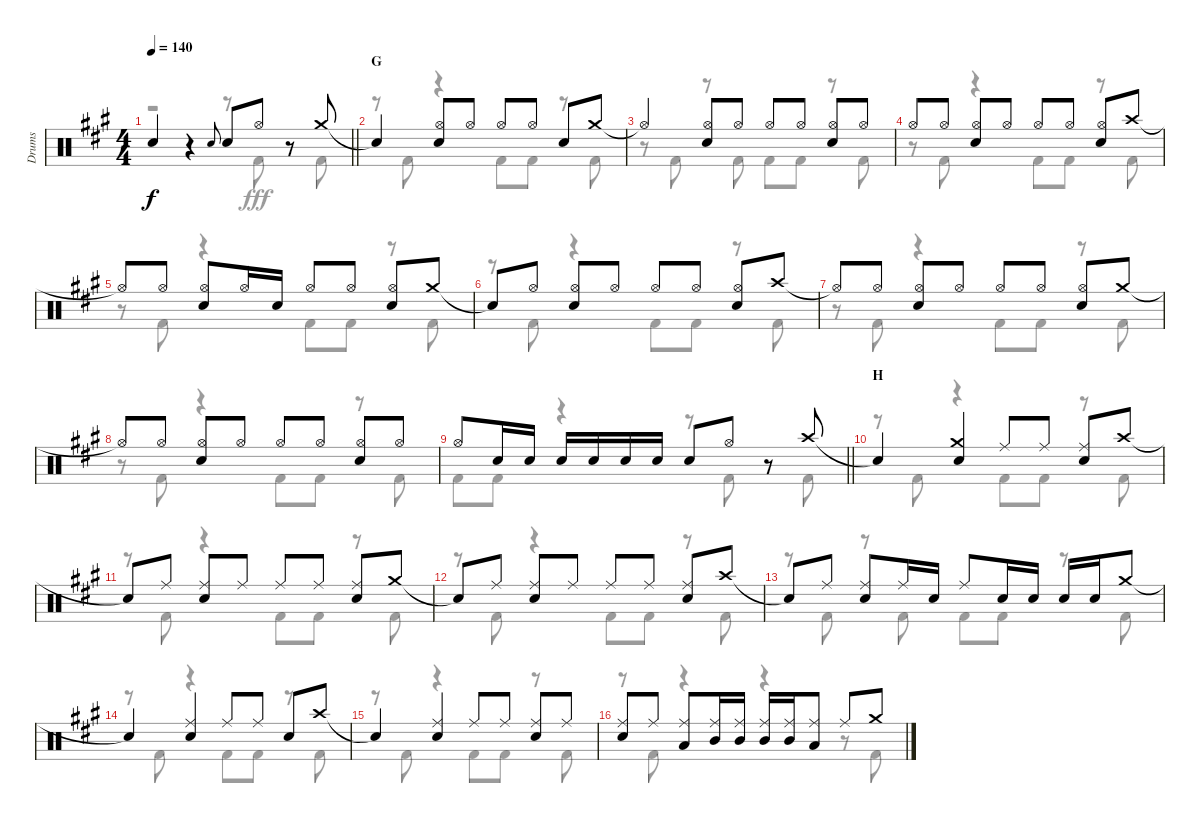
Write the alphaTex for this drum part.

\track ("Drums" "Drums") {instrument percussion}
\staff {score}
\articulation defaults
\voice
\ts (4 4)
\tempo 140
\clef neutral
\barLineRight lightlight
\ks a "Snare (hit) 2".4{dy f}
r.4 "Snare (hit) 2".8{gr onbeat} "Snare (hit) 2".8 "Hi-Hat (open)".8 r.8 "Crash medium (hit)".8 |
\section ("" "G")
"Snare (hit)"{t}.4 ("Hi-Hat (open)" "Snare (hit) 2").8 "Hi-Hat (open)".8 "Hi-Hat (open)".8 "Hi-Hat (open)".8 "Snare (hit) 2".8 "Crash medium (hit)".8 |
"Hi-Hat (open)"{t}.4 ("Hi-Hat (open)" "Snare (hit) 2").8 "Hi-Hat (open)".8 "Hi-Hat (open)".8 "Hi-Hat (open)".8 ("Hi-Hat (open)" "Snare (hit) 2").8 "Hi-Hat (open)".8 |
"Hi-Hat (open)".8 "Hi-Hat (open)".8 ("Hi-Hat (open)" "Snare (hit) 2").8 "Hi-Hat (open)".8 "Hi-Hat (open)".8 "Hi-Hat (open)".8 ("Hi-Hat (open)" "Snare (hit) 2").8 "Crash high (hit)".8 |
"Hi-Hat (open)"{t}.8 "Hi-Hat (open)".8 ("Hi-Hat (open)" "Snare (hit) 2").8 "Hi-Hat (open)".16 "Snare (hit) 2".16 "Hi-Hat (open)".8 "Hi-Hat (open)".8 ("Hi-Hat (open)" "Snare (hit) 2").8 "Crash medium (hit)".8 |
"Snare (hit)"{t}.8 "Hi-Hat (open)".8 ("Hi-Hat (open)" "Snare (hit) 2").8 "Hi-Hat (open)".8 "Hi-Hat (open)".8 "Hi-Hat (open)".8 ("Hi-Hat (open)" "Snare (hit) 2").8 "Crash high (hit)".8 |
"Hi-Hat (open)"{t}.8 "Hi-Hat (open)".8 ("Hi-Hat (open)" "Snare (hit) 2").8 "Hi-Hat (open)".8 "Hi-Hat (open)".8 "Hi-Hat (open)".8 ("Hi-Hat (open)" "Snare (hit) 2").8 "Crash medium (hit)".8 |
"Hi-Hat (open)"{t}.8 "Hi-Hat (open)".8 ("Hi-Hat (open)" "Snare (hit) 2").8 "Hi-Hat (open)".8 "Hi-Hat (open)".8 "Hi-Hat (open)".8 ("Hi-Hat (open)" "Snare (hit) 2").8 "Hi-Hat (open)".8 |
\barLineRight lightlight "Hi-Hat (open)".8 "Snare (hit) 2".16 "Snare (hit) 2".16 "Snare (hit) 2".16 "Snare (hit) 2".16 "Snare (hit) 2".16 "Snare (hit) 2".16 "Snare (hit) 2".8 "Hi-Hat (open)".8
r.8 "Crash high (hit)".8 |
\section ("" "H")
"Snare (hit)"{t}.4 ("Crash medium (hit)" "Snare (hit) 2").4 "Ride (middle)".8 "Ride (middle)".8 ("Ride (middle)" "Snare (hit) 2").8 "Crash high (hit)".8 |
"Snare (hit)"{t}.8 "Ride (middle)".8 ("Ride (middle)" "Snare (hit) 2").8 "Ride (middle)".8 "Ride (middle)".8 "Ride (middle)".8 ("Ride (middle)" "Snare (hit) 2").8 "Crash medium (hit)".8 |
"Snare (hit)"{t}.8 "Ride (middle)".8 ("Ride (middle)" "Snare (hit) 2").8 "Ride (middle)".8 "Ride (middle)".8 "Ride (middle)".8 ("Ride (middle)" "Snare (hit) 2").8 "Crash high (hit)".8 |
"Snare (hit)"{t}.8 "Ride (middle)".8 ("Ride (middle)" "Snare (hit) 2").8 "Ride (middle)".16 "Snare (hit) 2".16 "Ride (middle)".8 "Snare (hit) 2".16 "Snare (hit) 2".16 "Snare (hit) 2".16 "Snare (hit) 2".16 "Crash medium (hit)".8 |
"Snare (hit)"{t}.4 ("Ride (middle)" "Snare (hit) 2").4 "Ride (middle)".8 "Ride (middle)".8 "Snare (hit) 2".8 "Crash high (hit)".8 |
"Snare (hit)"{t}.4 ("Ride (middle)" "Snare (hit) 2").4 "Ride (middle)".8 "Ride (middle)".8 ("Ride (middle)" "Snare (hit) 2").8 "Ride (middle)".8 |
("Ride (middle)" "Snare (hit) 2").8 "Ride (middle)".8 ("Ride (middle)" "Low Tom (hit)").8 ("Ride (middle)" "Mid Tom (hit)").16 ("Ride (middle)" "Mid Tom (hit)").16 ("Ride (middle)" "Mid Tom (hit)").16 ("Ride (middle)" "Mid Tom (hit)").16 ("Ride (middle)" "Low Tom (hit)").8 "Ride (middle)".8 "Crash medium (hit)".8
\voice
\clef neutral
\ottava regular
\simile none
\barLineRight lightlight
\ks a
r.2{dy fff} r.8 "Kick (hit) 2".8 r.8 "Kick (hit) 2".8 |
r.8 "Kick (hit) 2".8 r.4 "Kick (hit) 2".8 "Kick (hit) 2".8 r.8 "Kick (hit) 2".8 |
r.8 "Kick (hit) 2".8 r.8 "Kick (hit) 2".8 "Kick (hit) 2".8 "Kick (hit) 2".8 r.8 "Kick (hit) 2".8 |
r.8 "Kick (hit) 2".8 r.4 "Kick (hit) 2".8 "Kick (hit) 2".8 r.8 "Kick (hit) 2".8 |
r.8 "Kick (hit) 2".8 r.4 "Kick (hit) 2".8 "Kick (hit) 2".8 r.8 "Kick (hit) 2".8 |
r.8 "Kick (hit) 2".8 r.4 "Kick (hit) 2".8 "Kick (hit) 2".8 r.8 "Kick (hit) 2".8 |
r.8 "Kick (hit) 2".8 r.4 "Kick (hit) 2".8 "Kick (hit) 2".8 r.8 "Kick (hit) 2".8 |
r.8 "Kick (hit) 2".8 r.4 "Kick (hit) 2".8 "Kick (hit) 2".8 r.8 "Kick (hit) 2".8 |
\barLineRight lightlight "Kick (hit) 2".8 "Kick (hit) 2".8
r.4 r.8 "Kick (hit) 2".8 r.8 "Kick (hit) 2".8 |
r.8 "Kick (hit) 2".8 r.4 "Kick (hit) 2".8 "Kick (hit) 2".8 r.8 "Kick (hit) 2".8 |
r.8 "Kick (hit) 2".8 r.4 "Kick (hit) 2".8 "Kick (hit) 2".8 r.8 "Kick (hit) 2".8 |
r.8 "Kick (hit) 2".8 r.4 "Kick (hit) 2".8 "Kick (hit) 2".8 r.8 "Kick (hit) 2".8 |
r.8 "Kick (hit) 2".8 r.8 "Kick (hit) 2".8 "Kick (hit) 2".8 "Kick (hit) 2".8 r.8 "Kick (hit) 2".8 |
r.8 "Kick (hit) 2".8 r.4 "Kick (hit) 2".8 "Kick (hit) 2".8 r.8 "Kick (hit) 2".8 |
r.8 "Kick (hit) 2".8 r.4 "Kick (hit) 2".8 "Kick (hit) 2".8 r.8 "Kick (hit) 2".8 |
r.8 "Kick (hit) 2".8 r.4 r.4 r.8 "Kick (hit) 2".8
